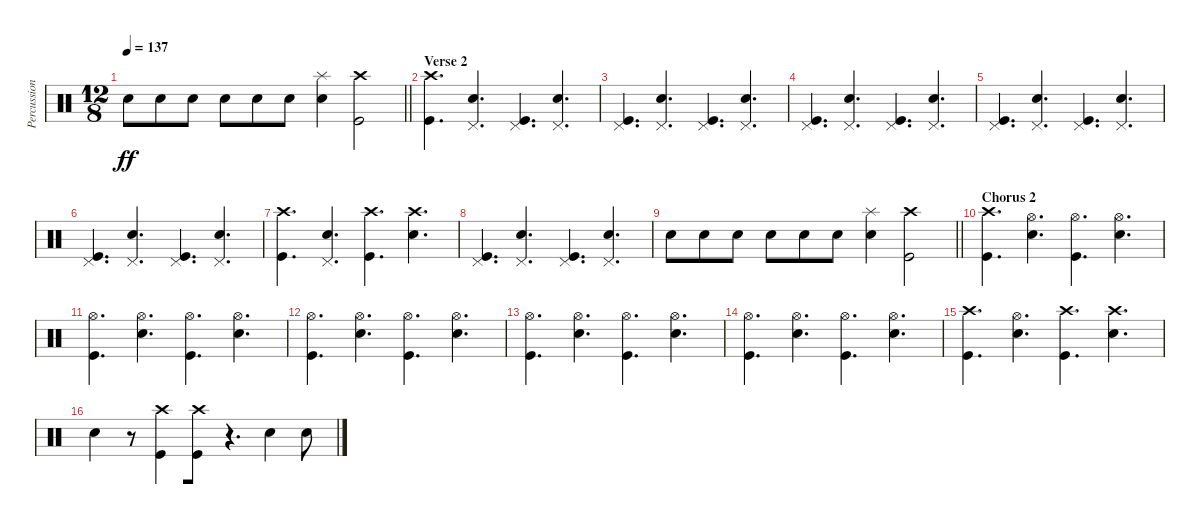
\track ("Percussion" "Percussion") {instrument percussion bank 255}
\staff {score}
\articulation defaults
\ts (12 8)
\tempo 137
\clef neutral
\barLineRight lightlight
\ks c "Electric Snare (hit)".8{dy ff beam merge} "Electric Snare (hit)".8 "Electric Snare (hit)".8 "Electric Snare (hit)".8{beam merge} "Electric Snare (hit)".8 "Electric Snare (hit)".8
("Splash (hit)" "Electric Snare (hit)").4 ("Crash high (hit)" "Kick (hit)").2 |
\section ("" "Verse 2")
("Kick (hit)" "Crash high (hit)").4{d} ("Pedal Hi-Hat (hit)" "Electric Snare (hit)").4{d} ("Pedal Hi-Hat (hit)" "Kick (hit)").4{d} ("Pedal Hi-Hat (hit)" "Electric Snare (hit)").4{d} |
("Kick (hit)" "Pedal Hi-Hat (hit)").4{d} ("Pedal Hi-Hat (hit)" "Electric Snare (hit)").4{d} ("Pedal Hi-Hat (hit)" "Kick (hit)").4{d} ("Pedal Hi-Hat (hit)" "Electric Snare (hit)").4{d} |
("Kick (hit)" "Pedal Hi-Hat (hit)").4{d} ("Pedal Hi-Hat (hit)" "Electric Snare (hit)").4{d} ("Pedal Hi-Hat (hit)" "Kick (hit)").4{d} ("Pedal Hi-Hat (hit)" "Electric Snare (hit)").4{d} |
("Kick (hit)" "Pedal Hi-Hat (hit)").4{d} ("Pedal Hi-Hat (hit)" "Electric Snare (hit)").4{d} ("Pedal Hi-Hat (hit)" "Kick (hit)").4{d} ("Pedal Hi-Hat (hit)" "Electric Snare (hit)").4{d} |
("Kick (hit)" "Pedal Hi-Hat (hit)").4{d} ("Pedal Hi-Hat (hit)" "Electric Snare (hit)").4{d} ("Pedal Hi-Hat (hit)" "Kick (hit)").4{d} ("Pedal Hi-Hat (hit)" "Electric Snare (hit)").4{d} |
("Kick (hit)" "Crash high (hit)").4{d} ("Pedal Hi-Hat (hit)" "Electric Snare (hit)").4{d} ("Crash high (hit)" "Kick (hit)").4{d} ("Crash high (hit)" "Electric Snare (hit)").4{d} |
("Kick (hit)" "Pedal Hi-Hat (hit)").4{d} ("Pedal Hi-Hat (hit)" "Electric Snare (hit)").4{d} ("Pedal Hi-Hat (hit)" "Kick (hit)").4{d} ("Pedal Hi-Hat (hit)" "Electric Snare (hit)").4{d} |
\barLineRight lightlight "Electric Snare (hit)".8{beam merge} "Electric Snare (hit)".8 "Electric Snare (hit)".8 "Electric Snare (hit)".8{beam merge} "Electric Snare (hit)".8 "Electric Snare (hit)".8
("Splash (hit)" "Electric Snare (hit)").4 ("Crash high (hit)" "Kick (hit)").2 |
\section ("" "Chorus 2")
("Kick (hit)" "Crash high (hit)").4{d} ("Hi-Hat (open)" "Electric Snare (hit)").4{d} ("Hi-Hat (open)" "Kick (hit)").4{d} ("Hi-Hat (open)" "Electric Snare (hit)").4{d} |
("Kick (hit)" "Hi-Hat (open)").4{d} ("Hi-Hat (open)" "Electric Snare (hit)").4{d} ("Hi-Hat (open)" "Kick (hit)").4{d} ("Hi-Hat (open)" "Electric Snare (hit)").4{d} |
("Kick (hit)" "Hi-Hat (open)").4{d} ("Hi-Hat (open)" "Electric Snare (hit)").4{d} ("Hi-Hat (open)" "Kick (hit)").4{d} ("Hi-Hat (open)" "Electric Snare (hit)").4{d} |
("Kick (hit)" "Hi-Hat (open)").4{d} ("Hi-Hat (open)" "Electric Snare (hit)").4{d} ("Hi-Hat (open)" "Kick (hit)").4{d} ("Hi-Hat (open)" "Electric Snare (hit)").4{d} |
("Kick (hit)" "Hi-Hat (open)").4{d} ("Hi-Hat (open)" "Electric Snare (hit)").4{d} ("Hi-Hat (open)" "Kick (hit)").4{d} ("Hi-Hat (open)" "Electric Snare (hit)").4{d} |
("Kick (hit)" "Crash high (hit)").4{d} ("Hi-Hat (open)" "Electric Snare (hit)").4{d} ("Crash high (hit)" "Kick (hit)").4{d} ("Crash high (hit)" "Electric Snare (hit)").4{d} |
"Electric Snare (hit)".4 r.8{beam merge} ("Kick (hit)" "Crash high (hit)").4{beam merge} ("Kick (hit)" "Crash high (hit)").8 r.4{d} "Electric Snare (hit)".4 "Electric Snare (hit)".8
